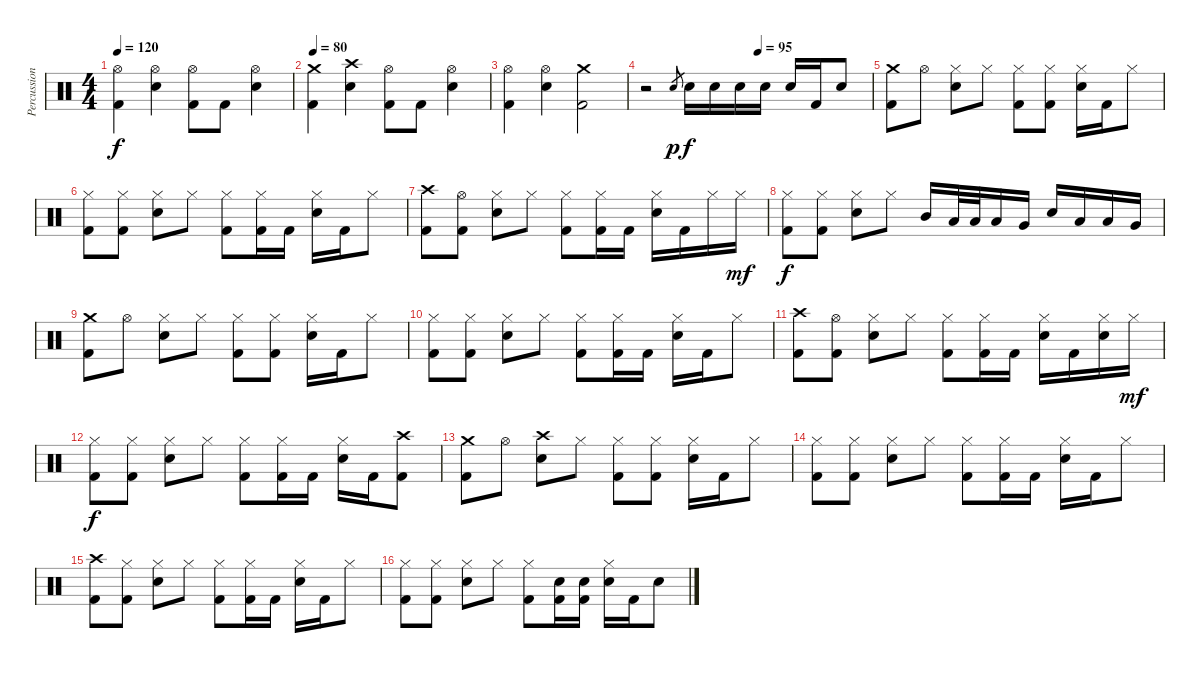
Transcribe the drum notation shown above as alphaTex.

\track ("Percussion" "Percussion") {instrument percussion}
\staff {score}
\articulation defaults
\ts (4 4)
\tempo 120
\clef neutral
\ks c
("Hi-Hat (open)" "Kick (hit) 2").4{dy f} ("Hi-Hat (open)" "Snare (hit) 2").4 ("Hi-Hat (open)" "Kick (hit) 2").8 "Kick (hit) 2".8 ("Hi-Hat (open)" "Snare (hit) 2").4 |
\tempo 80
("Crash medium (hit)" "Kick (hit) 2").4 ("Crash high (hit)" "Snare (hit) 2").4 ("Hi-Hat (open)" "Kick (hit) 2").8 "Kick (hit) 2".8 ("Hi-Hat (open)" "Snare (hit) 2").4 |
("Hi-Hat (open)" "Kick (hit) 2").4 ("Hi-Hat (open)" "Snare (hit) 2").4 ("Crash medium (hit)" "Kick (hit) 2").2 |
\tempo (95 0.5)
r.2 "Snare (hit) 2".8{gr dy p} "Snare (hit) 2".16{dy f} "Snare (hit) 2".16 "Snare (hit) 2".16 "Snare (hit) 2".16 "Snare (hit) 2".16 "Kick (hit) 2".16 "Snare (hit) 2".8 |
("Crash medium (hit)" "Kick (hit) 2").8 "Hi-Hat (open)".8 ("Hi-Hat (closed)" "Snare (hit) 2").8 "Hi-Hat (closed)".8 ("Hi-Hat (closed)" "Kick (hit) 2").8 ("Hi-Hat (closed)" "Kick (hit) 2").8 ("Hi-Hat (closed)" "Snare (hit) 2").16 "Kick (hit) 2".16 "Hi-Hat (closed)".8 |
("Hi-Hat (closed)" "Kick (hit) 2").8 ("Hi-Hat (closed)" "Kick (hit) 2").8 ("Hi-Hat (closed)" "Snare (hit) 2").8 "Hi-Hat (closed)".8 ("Hi-Hat (closed)" "Kick (hit) 2").8 ("Hi-Hat (closed)" "Kick (hit) 2").16 "Kick (hit) 2".16 ("Hi-Hat (closed)" "Snare (hit) 2").16 "Kick (hit) 2".16 "Hi-Hat (closed)".8 |
("Crash high (hit)" "Kick (hit) 2").8 ("Hi-Hat (open)" "Kick (hit) 2").8 ("Hi-Hat (closed)" "Snare (hit) 2").8 "Hi-Hat (closed)".8 ("Hi-Hat (closed)" "Kick (hit) 2").8 ("Hi-Hat (closed)" "Kick (hit) 2").16 "Kick (hit) 2".16 ("Hi-Hat (closed)" "Snare (hit) 2").16 "Kick (hit) 2".16 "Hi-Hat (closed)".16 "Hi-Hat (closed)".16{dy mf} |
("Hi-Hat (closed)" "Kick (hit) 2").8{dy f} ("Hi-Hat (closed)" "Kick (hit) 2").8 ("Hi-Hat (closed)" "Snare (hit) 2").8 "Hi-Hat (closed)".8 "Mid Tom (hit)".16 "Low Tom (hit)".32 "Low Tom (hit)".32 "Low Tom (hit)".16 "Very Low Tom (hit)".16 "Snare (hit) 2".16 "Low Tom (hit)".16 "Low Tom (hit)".16 "Very Low Tom (hit)".16 |
("Crash medium (hit)" "Kick (hit) 2").8 "Hi-Hat (open)".8 ("Hi-Hat (closed)" "Snare (hit) 2").8 "Hi-Hat (closed)".8 ("Hi-Hat (closed)" "Kick (hit) 2").8 ("Hi-Hat (closed)" "Kick (hit) 2").8 ("Hi-Hat (closed)" "Snare (hit) 2").16 "Kick (hit) 2".16 "Hi-Hat (closed)".8 |
("Hi-Hat (closed)" "Kick (hit) 2").8 ("Hi-Hat (closed)" "Kick (hit) 2").8 ("Hi-Hat (closed)" "Snare (hit) 2").8 "Hi-Hat (closed)".8 ("Hi-Hat (closed)" "Kick (hit) 2").8 ("Hi-Hat (closed)" "Kick (hit) 2").16 "Kick (hit) 2".16 ("Hi-Hat (closed)" "Snare (hit) 2").16 "Kick (hit) 2".16 "Hi-Hat (closed)".8 |
("Crash high (hit)" "Kick (hit) 2").8 ("Hi-Hat (open)" "Kick (hit) 2").8 ("Hi-Hat (closed)" "Snare (hit) 2").8 "Hi-Hat (closed)".8 ("Hi-Hat (closed)" "Kick (hit) 2").8 ("Hi-Hat (closed)" "Kick (hit) 2").16 "Kick (hit) 2".16 ("Hi-Hat (closed)" "Snare (hit) 2").16 "Kick (hit) 2".16 ("Hi-Hat (closed)" "Snare (hit) 2").16 "Hi-Hat (closed)".16{dy mf} |
("Hi-Hat (closed)" "Kick (hit) 2").8{dy f} ("Hi-Hat (closed)" "Kick (hit) 2").8 ("Hi-Hat (closed)" "Snare (hit) 2").8 "Hi-Hat (closed)".8 ("Hi-Hat (closed)" "Kick (hit) 2").8 ("Hi-Hat (closed)" "Kick (hit) 2").16 "Kick (hit) 2".16 ("Hi-Hat (closed)" "Snare (hit) 2").16 "Kick (hit) 2".16 ("Crash high (hit)" "Kick (hit) 2").8 |
("Crash medium (hit)" "Kick (hit) 2").8 "Hi-Hat (open)".8 ("Crash high (hit)" "Snare (hit) 2").8 "Hi-Hat (closed)".8 ("Hi-Hat (closed)" "Kick (hit) 2").8 ("Hi-Hat (closed)" "Kick (hit) 2").8 ("Hi-Hat (closed)" "Snare (hit) 2").16 "Kick (hit) 2".16 "Hi-Hat (closed)".8 |
("Hi-Hat (closed)" "Kick (hit) 2").8 ("Hi-Hat (closed)" "Kick (hit) 2").8 ("Hi-Hat (closed)" "Snare (hit) 2").8 "Hi-Hat (closed)".8 ("Hi-Hat (closed)" "Kick (hit) 2").8 ("Hi-Hat (closed)" "Kick (hit) 2").16 "Kick (hit) 2".16 ("Hi-Hat (closed)" "Snare (hit) 2").16 "Kick (hit) 2".16 "Hi-Hat (closed)".8 |
("Crash high (hit)" "Kick (hit) 2").8 ("Hi-Hat (closed)" "Kick (hit) 2").8 ("Hi-Hat (closed)" "Snare (hit) 2").8 "Hi-Hat (closed)".8 ("Hi-Hat (closed)" "Kick (hit) 2").8 ("Hi-Hat (closed)" "Kick (hit) 2").16 "Kick (hit) 2".16 ("Hi-Hat (closed)" "Snare (hit) 2").16 "Kick (hit) 2".16 "Hi-Hat (closed)".8 |
("Hi-Hat (closed)" "Kick (hit) 2").8 ("Hi-Hat (closed)" "Kick (hit) 2").8 ("Hi-Hat (closed)" "Snare (hit) 2").8 "Hi-Hat (closed)".8 ("Hi-Hat (closed)" "Kick (hit) 2").8 ("Snare (hit) 2" "Kick (hit) 2").16 ("Snare (hit) 2" "Kick (hit) 2").16 ("Hi-Hat (closed)" "Snare (hit) 2").16 "Kick (hit) 2".16 "Snare (hit) 2".8
